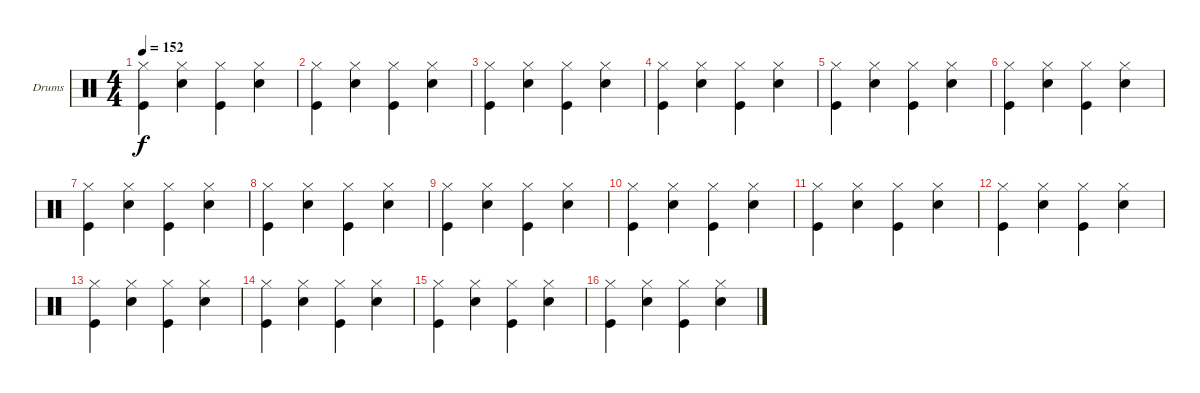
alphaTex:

\bracketExtendMode groupsimilarinstruments
\firstSystemTrackNameOrientation horizontal
\otherSystemsTrackNameOrientation horizontal
\track ("Drumkit" "Drums") {instrument percussion}
\staff {score}
\articulation defaults
\ts (4 4)
\tempo 152
\clef neutral
\scale
0.333333
\ks c
("Hi-Hat (closed)" "Kick (hit)").4{dy f} ("Snare (hit) 2" "Hi-Hat (closed)").4 ("Kick (hit)" "Hi-Hat (closed)").4 ("Snare (hit) 2" "Hi-Hat (closed)").4 |
\scale
0.333333 ("Hi-Hat (closed)" "Kick (hit)").4 ("Snare (hit) 2" "Hi-Hat (closed)").4 ("Kick (hit)" "Hi-Hat (closed)").4 ("Snare (hit) 2" "Hi-Hat (closed)").4 |
\scale
0.333333 ("Hi-Hat (closed)" "Kick (hit)").4 ("Snare (hit) 2" "Hi-Hat (closed)").4 ("Kick (hit)" "Hi-Hat (closed)").4 ("Snare (hit) 2" "Hi-Hat (closed)").4 |
\scale
0.333333 ("Hi-Hat (closed)" "Kick (hit)").4 ("Snare (hit) 2" "Hi-Hat (closed)").4 ("Kick (hit)" "Hi-Hat (closed)").4 ("Snare (hit) 2" "Hi-Hat (closed)").4 |
\scale
0.333333 ("Hi-Hat (closed)" "Kick (hit)").4 ("Snare (hit) 2" "Hi-Hat (closed)").4 ("Kick (hit)" "Hi-Hat (closed)").4 ("Snare (hit) 2" "Hi-Hat (closed)").4 |
\scale
0.333333 ("Hi-Hat (closed)" "Kick (hit)").4 ("Snare (hit) 2" "Hi-Hat (closed)").4 ("Kick (hit)" "Hi-Hat (closed)").4 ("Snare (hit) 2" "Hi-Hat (closed)").4 |
\scale
0.333333 ("Hi-Hat (closed)" "Kick (hit)").4 ("Snare (hit) 2" "Hi-Hat (closed)").4 ("Kick (hit)" "Hi-Hat (closed)").4 ("Snare (hit) 2" "Hi-Hat (closed)").4 |
\scale
0.333333 ("Hi-Hat (closed)" "Kick (hit)").4 ("Snare (hit) 2" "Hi-Hat (closed)").4 ("Kick (hit)" "Hi-Hat (closed)").4 ("Snare (hit) 2" "Hi-Hat (closed)").4 |
\scale
0.333333 ("Hi-Hat (closed)" "Kick (hit)").4 ("Snare (hit) 2" "Hi-Hat (closed)").4 ("Kick (hit)" "Hi-Hat (closed)").4 ("Snare (hit) 2" "Hi-Hat (closed)").4 |
\scale
0.333333 ("Hi-Hat (closed)" "Kick (hit)").4 ("Snare (hit) 2" "Hi-Hat (closed)").4 ("Kick (hit)" "Hi-Hat (closed)").4 ("Snare (hit) 2" "Hi-Hat (closed)").4 |
\scale
0.333333 ("Hi-Hat (closed)" "Kick (hit)").4 ("Snare (hit) 2" "Hi-Hat (closed)").4 ("Kick (hit)" "Hi-Hat (closed)").4 ("Snare (hit) 2" "Hi-Hat (closed)").4 |
\scale
0.333333 ("Hi-Hat (closed)" "Kick (hit)").4 ("Snare (hit) 2" "Hi-Hat (closed)").4 ("Kick (hit)" "Hi-Hat (closed)").4 ("Snare (hit) 2" "Hi-Hat (closed)").4 |
\scale
0.333333 ("Hi-Hat (closed)" "Kick (hit)").4 ("Snare (hit) 2" "Hi-Hat (closed)").4 ("Kick (hit)" "Hi-Hat (closed)").4 ("Snare (hit) 2" "Hi-Hat (closed)").4 |
\scale
0.333333 ("Hi-Hat (closed)" "Kick (hit)").4 ("Snare (hit) 2" "Hi-Hat (closed)").4 ("Kick (hit)" "Hi-Hat (closed)").4 ("Snare (hit) 2" "Hi-Hat (closed)").4 |
\scale
0.333333 ("Hi-Hat (closed)" "Kick (hit)").4 ("Snare (hit) 2" "Hi-Hat (closed)").4 ("Kick (hit)" "Hi-Hat (closed)").4 ("Snare (hit) 2" "Hi-Hat (closed)").4 |
\scale
0.333333 ("Hi-Hat (closed)" "Kick (hit)").4 ("Snare (hit) 2" "Hi-Hat (closed)").4 ("Kick (hit)" "Hi-Hat (closed)").4 ("Snare (hit) 2" "Hi-Hat (closed)").4
